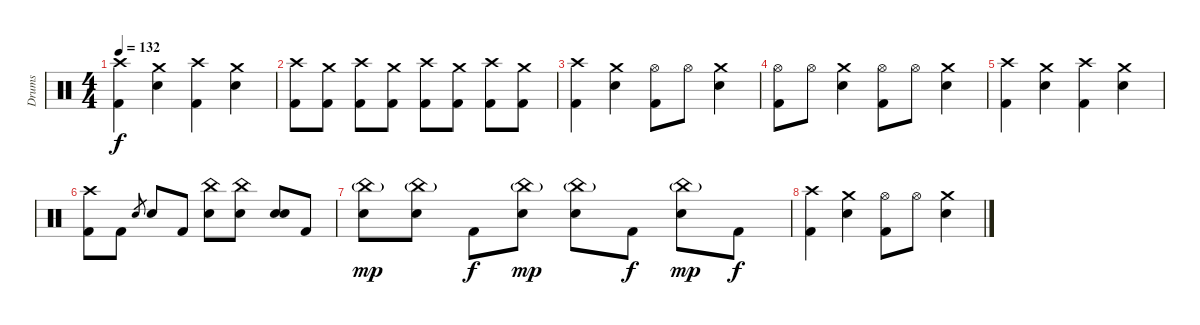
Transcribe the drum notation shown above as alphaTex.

\track ("Drums" "Drums") {instrument percussion}
\staff {score}
\articulation defaults
\ts (4 4)
\tempo 132
\clef neutral
\ks c
("Crash high (hit)" "Kick (hit) 2").4{dy f} ("Crash medium (hit)" "Snare (hit) 2").4 ("Crash high (hit)" "Kick (hit) 2").4 ("Crash medium (hit)" "Snare (hit) 2").4 |
("Crash high (hit)" "Kick (hit) 2").8{volume 2} ("Crash medium (hit)" "Kick (hit) 2").8 ("Crash high (hit)" "Kick (hit) 2").8 ("Crash medium (hit)" "Kick (hit) 2").8 ("Crash high (hit)" "Kick (hit) 2").8 ("Crash medium (hit)" "Kick (hit) 2").8 ("Crash high (hit)" "Kick (hit) 2").8 ("Crash medium (hit)" "Kick (hit) 2").8 |
("Crash high (hit)" "Kick (hit) 2").4 ("Crash medium (hit)" "Snare (hit) 2").4 ("Hi-Hat (open)" "Kick (hit) 2").8 "Hi-Hat (open)".8 ("Crash medium (hit)" "Snare (hit) 2").4 |
("Hi-Hat (open)" "Kick (hit) 2").8 "Hi-Hat (open)".8 ("Crash medium (hit)" "Snare (hit) 2").4 ("Hi-Hat (open)" "Kick (hit) 2").8 "Hi-Hat (open)".8 ("Crash medium (hit)" "Snare (hit) 2").4 |
("Crash high (hit)" "Kick (hit) 2").4 ("Crash medium (hit)" "Snare (hit) 2").4 ("Crash high (hit)" "Kick (hit) 2").4 ("Crash medium (hit)" "Snare (hit) 2").4 |
("Crash high (hit)" "Kick (hit) 2").8{volume 1} "Kick (hit) 2".8 "Snare (hit) 2".8{gr} "Snare (hit) 2".8 "Kick (hit) 2".8 ("China (hit)" "Snare (hit) 2").8 ("China (hit)" "Snare (hit) 2").8 ("Snare (hit)" "Snare (hit) 2").8 "Kick (hit) 2".8 |
("China (hit)"{g} "Snare (hit) 2").8{dy mp volume 0} ("China (hit)"{g} "Snare (hit) 2").8 "Kick (hit) 2".8{dy f} ("China (hit)"{g} "Snare (hit) 2").8{dy mp} ("China (hit)"{g} "Snare (hit) 2").8 "Kick (hit) 2".8{dy f} ("China (hit)"{g} "Snare (hit) 2").8{dy mp} "Kick (hit) 2".8{dy f} |
("Crash high (hit)" "Kick (hit) 2").4 ("Crash medium (hit)" "Snare (hit) 2").4 ("Hi-Hat (open)" "Kick (hit) 2").8 "Hi-Hat (open)".8 ("Crash medium (hit)" "Snare (hit) 2").4
